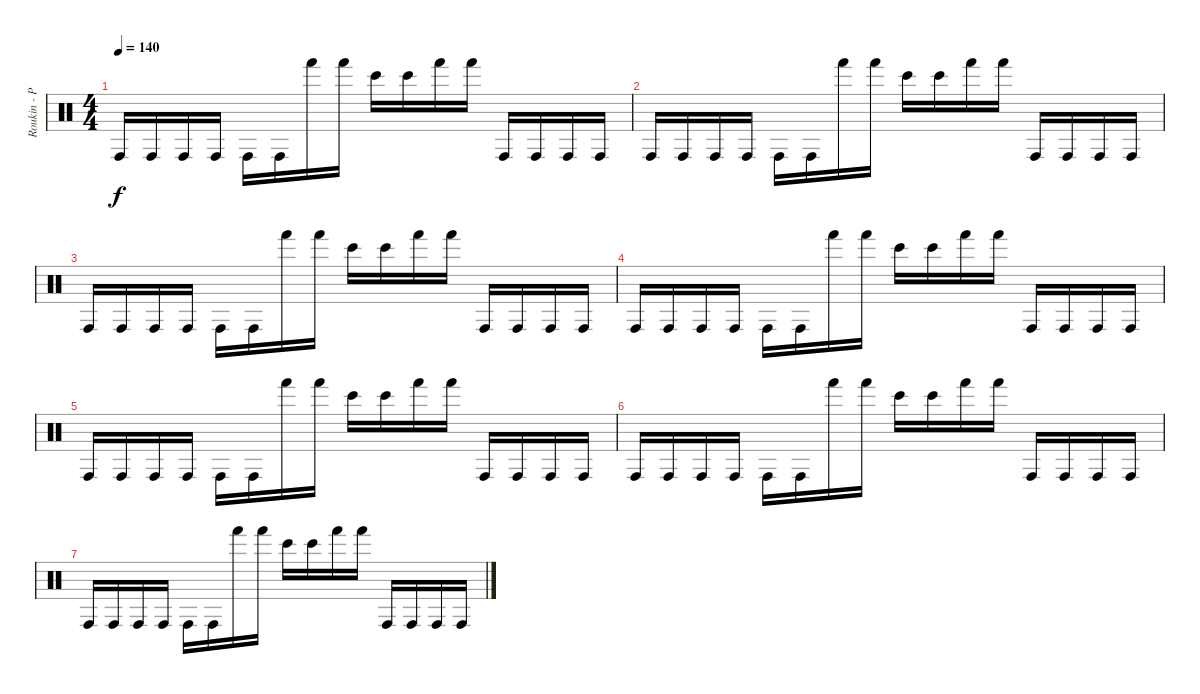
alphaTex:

\track ("Roukin - Percus" "Roukin - P") {instrument percussion}
\staff {score}
\articulation defaults
\ts (4 4)
\tempo 140
\clef neutral
\ks c "Conga high (hit)".16{dy f} "Conga high (hit)".16 "Conga high (hit)".16 "Conga high (hit)".16 "Conga high (hit)".16 "Conga high (hit)".16 "Hand (hit)".16 "Hand (hit)".16 "Bongo High (hit)".16 "Bongo High (hit)".16 "Hand (hit)".16 "Hand (hit)".16 "Conga high (hit)".16 "Conga high (hit)".16 "Conga high (hit)".16 "Conga high (hit)".16
|
"Conga high (hit)".16{volume 9} "Conga high (hit)".16 "Conga high (hit)".16 "Conga high (hit)".16 "Conga high (hit)".16 "Conga high (hit)".16 "Hand (hit)".16 "Hand (hit)".16 "Bongo High (hit)".16 "Bongo High (hit)".16 "Hand (hit)".16 "Hand (hit)".16 "Conga high (hit)".16 "Conga high (hit)".16 "Conga high (hit)".16 "Conga high (hit)".16 |
"Conga high (hit)".16 "Conga high (hit)".16 "Conga high (hit)".16 "Conga high (hit)".16 "Conga high (hit)".16 "Conga high (hit)".16 "Hand (hit)".16 "Hand (hit)".16 "Bongo High (hit)".16 "Bongo High (hit)".16 "Hand (hit)".16 "Hand (hit)".16 "Conga high (hit)".16 "Conga high (hit)".16 "Conga high (hit)".16 "Conga high (hit)".16 |
"Conga high (hit)".16{volume 6} "Conga high (hit)".16 "Conga high (hit)".16 "Conga high (hit)".16 "Conga high (hit)".16 "Conga high (hit)".16 "Hand (hit)".16 "Hand (hit)".16 "Bongo High (hit)".16 "Bongo High (hit)".16 "Hand (hit)".16 "Hand (hit)".16 "Conga high (hit)".16 "Conga high (hit)".16 "Conga high (hit)".16 "Conga high (hit)".16 |
"Conga high (hit)".16 "Conga high (hit)".16 "Conga high (hit)".16 "Conga high (hit)".16 "Conga high (hit)".16 "Conga high (hit)".16 "Hand (hit)".16 "Hand (hit)".16 "Bongo High (hit)".16 "Bongo High (hit)".16 "Hand (hit)".16 "Hand (hit)".16 "Conga high (hit)".16 "Conga high (hit)".16 "Conga high (hit)".16 "Conga high (hit)".16 |
"Conga high (hit)".16{volume 0} "Conga high (hit)".16 "Conga high (hit)".16 "Conga high (hit)".16 "Conga high (hit)".16 "Conga high (hit)".16 "Hand (hit)".16 "Hand (hit)".16 "Bongo High (hit)".16 "Bongo High (hit)".16 "Hand (hit)".16 "Hand (hit)".16 "Conga high (hit)".16 "Conga high (hit)".16 "Conga high (hit)".16 "Conga high (hit)".16 |
"Conga high (hit)".16 "Conga high (hit)".16 "Conga high (hit)".16 "Conga high (hit)".16 "Conga high (hit)".16 "Conga high (hit)".16 "Hand (hit)".16 "Hand (hit)".16 "Bongo High (hit)".16 "Bongo High (hit)".16 "Hand (hit)".16 "Hand (hit)".16 "Conga high (hit)".16 "Conga high (hit)".16 "Conga high (hit)".16 "Conga high (hit)".16
